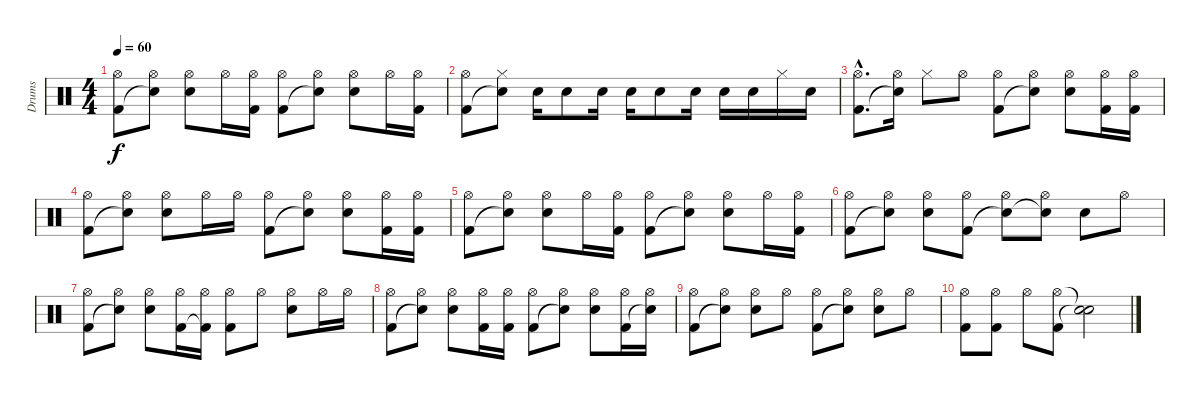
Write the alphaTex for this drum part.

\track ("Drums" "Drums") {instrument percussion}
\staff {score}
\articulation defaults
\ts (4 4)
\tempo 60
\clef neutral
\ks c
("Hi-Hat (open)" "Kick (hit) 2").8{dy f} ("Hi-Hat (open)" "Snare (hit)"{t}).8 ("Hi-Hat (open)" "Snare (hit) 2").8 "Hi-Hat (open)".16 ("Hi-Hat (open)" "Kick (hit) 2").16 ("Hi-Hat (open)" "Kick (hit) 2").8 ("Hi-Hat (open)" "Snare (hit)"{t}).8 ("Hi-Hat (open)" "Snare (hit) 2").8 "Hi-Hat (open)".16 ("Hi-Hat (open)" "Kick (hit) 2").16 |
("Hi-Hat (open)" "Kick (hit) 2").8 ("Hi-Hat (closed)" "Snare (hit)"{t}).8 "Snare (hit) 2".16 "Snare (hit) 2".8 "Snare (hit) 2".16 "Snare (hit) 2".16 "Snare (hit) 2".8 "Snare (hit) 2".16 "Snare (hit) 2".16 "Snare (hit) 2".16 "Hi-Hat (closed)".16 "Snare (hit) 2".16 |
("Hi-Hat (open)"{hac} "Kick (hit) 2"{hac}).8{d} ("Hi-Hat (open)" "Snare (hit)"{t}).16 "Hi-Hat (closed)".8 "Hi-Hat (open)".8 ("Hi-Hat (open)" "Kick (hit) 2").8 ("Hi-Hat (open)" "Snare (hit)"{t}).8 ("Hi-Hat (open)" "Snare (hit) 2").8 ("Hi-Hat (open)" "Kick (hit) 2").16 ("Hi-Hat (open)" "Kick (hit) 2").16 |
("Hi-Hat (open)" "Kick (hit) 2").8 ("Hi-Hat (open)" "Snare (hit)"{t}).8 ("Hi-Hat (open)" "Snare (hit) 2").8 "Hi-Hat (open)".16 "Hi-Hat (open)".16 ("Hi-Hat (open)" "Kick (hit) 2").8 ("Hi-Hat (open)" "Snare (hit)"{t}).8 ("Hi-Hat (open)" "Snare (hit) 2").8 ("Hi-Hat (open)" "Kick (hit) 2").16 ("Hi-Hat (open)" "Kick (hit) 2").16 |
("Hi-Hat (open)" "Kick (hit) 2").8 ("Hi-Hat (open)" "Snare (hit)"{t}).8 ("Hi-Hat (open)" "Snare (hit) 2").8 "Hi-Hat (open)".16 ("Hi-Hat (open)" "Kick (hit) 2").16 ("Hi-Hat (open)" "Kick (hit) 2").8 ("Hi-Hat (open)" "Snare (hit)"{t}).8 ("Hi-Hat (open)" "Snare (hit) 2").8 "Hi-Hat (open)".16 ("Hi-Hat (open)" "Kick (hit) 2").16 |
("Hi-Hat (open)" "Kick (hit) 2").8 ("Hi-Hat (open)" "Snare (hit)"{t}).8 ("Hi-Hat (open)" "Snare (hit) 2").8 ("Hi-Hat (open)" "Kick (hit) 2").8 ("Hi-Hat (open)" "Snare (hit)"{t}).8 ("Hi-Hat (open)" "Snare (hit)"{t}).8 "Snare (hit) 2".8 "Hi-Hat (open)".8 |
("Hi-Hat (open)" "Kick (hit) 2").8 ("Hi-Hat (open)" "Snare (hit)"{t}).8 ("Hi-Hat (open)" "Snare (hit) 2").8 ("Hi-Hat (open)" "Kick (hit) 2").16 ("Hi-Hat (open)" "Kick (hit) 2"{t}).16 ("Hi-Hat (open)" "Kick (hit) 2").8 "Hi-Hat (open)".8 ("Hi-Hat (open)" "Snare (hit) 2").8 "Hi-Hat (open)".16 "Hi-Hat (open)".16 |
("Hi-Hat (open)" "Kick (hit) 2").8 ("Hi-Hat (open)" "Snare (hit)"{t}).8 ("Hi-Hat (open)" "Snare (hit) 2").8 ("Hi-Hat (open)" "Kick (hit) 2").16 ("Hi-Hat (open)" "Kick (hit) 2").16 ("Hi-Hat (open)" "Kick (hit) 2").8 ("Hi-Hat (open)" "Snare (hit)"{t}).8 ("Hi-Hat (open)" "Snare (hit) 2").8 ("Hi-Hat (open)" "Kick (hit) 2").16 ("Hi-Hat (open)" "Snare (hit)"{t}).16 |
("Hi-Hat (open)" "Kick (hit) 2").8 ("Hi-Hat (open)" "Snare (hit)"{t}).8 ("Hi-Hat (open)" "Snare (hit) 2").8 "Hi-Hat (open)".8 ("Hi-Hat (open)" "Kick (hit) 2").8 ("Hi-Hat (open)" "Snare (hit)"{t}).8 ("Hi-Hat (open)" "Snare (hit) 2").8 "Hi-Hat (open)".8 |
("Hi-Hat (open)" "Kick (hit) 2").8 ("Hi-Hat (open)" "Kick (hit) 2").8 "Hi-Hat (open)".8 ("Hi-Hat (open)" "Kick (hit) 2").8 ("Snare (hit)"{t} "Snare (hit)"{t}).2
